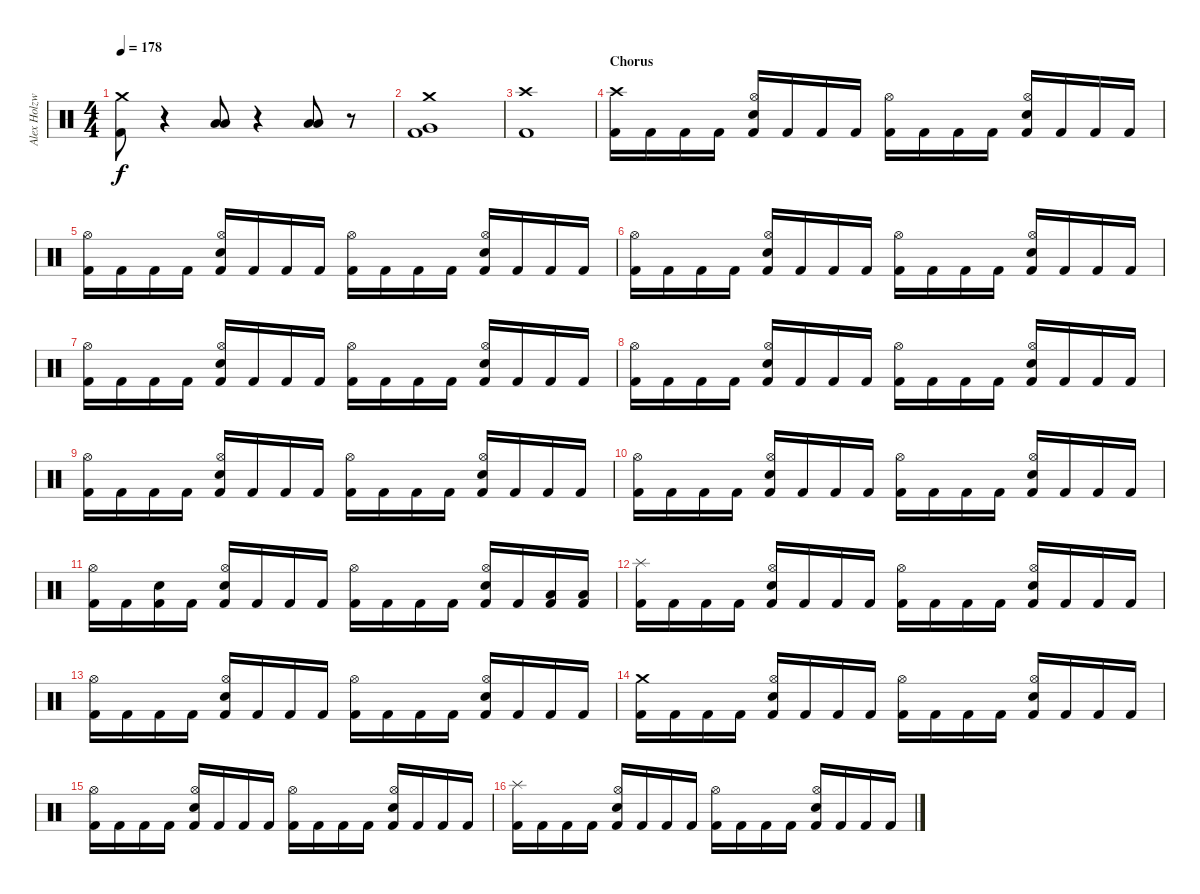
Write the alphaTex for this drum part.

\track ("Alex Holzwarth" "Alex Holzw") {instrument percussion}
\staff {score}
\articulation defaults
\ts (4 4)
\tempo 178
\clef neutral
\ks c
("Crash medium (hit)" "Kick (hit) 2").8{dy f} r.4 ("Low Tom (hit)" "Low Tom (hit)").8 r.4 ("Low Floor Tom (hit)" "Low Floor Tom (hit)").8 r.8 |
("Crash medium (hit)" "Very Low Tom (hit)" "Kick (hit) 2").1 |
("Crash high (hit)" "Kick (hit) 2").1 |
\section ("" "Chorus")
("Crash high (hit)" "Kick (hit) 2").16 "Kick (hit) 2".16 "Kick (hit) 2".16 "Kick (hit) 2".16 ("Hi-Hat (open)" "Snare (hit) 2" "Kick (hit) 2").16 "Kick (hit) 2".16 "Kick (hit) 2".16 "Kick (hit) 2".16 ("Hi-Hat (open)" "Kick (hit) 2").16 "Kick (hit) 2".16 "Kick (hit) 2".16 "Kick (hit) 2".16 ("Hi-Hat (open)" "Snare (hit) 2" "Kick (hit) 2").16 "Kick (hit) 2".16 "Kick (hit) 2".16 "Kick (hit) 2".16 |
("Hi-Hat (open)" "Kick (hit) 2").16 "Kick (hit) 2".16 "Kick (hit) 2".16 "Kick (hit) 2".16 ("Hi-Hat (open)" "Snare (hit) 2" "Kick (hit) 2").16 "Kick (hit) 2".16 "Kick (hit) 2".16 "Kick (hit) 2".16 ("Hi-Hat (open)" "Kick (hit) 2").16 "Kick (hit) 2".16 "Kick (hit) 2".16 "Kick (hit) 2".16 ("Hi-Hat (open)" "Snare (hit) 2" "Kick (hit) 2").16 "Kick (hit) 2".16 "Kick (hit) 2".16 "Kick (hit) 2".16 |
("Hi-Hat (open)" "Kick (hit) 2").16 "Kick (hit) 2".16 "Kick (hit) 2".16 "Kick (hit) 2".16 ("Hi-Hat (open)" "Snare (hit) 2" "Kick (hit) 2").16 "Kick (hit) 2".16 "Kick (hit) 2".16 "Kick (hit) 2".16 ("Hi-Hat (open)" "Kick (hit) 2").16 "Kick (hit) 2".16 "Kick (hit) 2".16 "Kick (hit) 2".16 ("Hi-Hat (open)" "Snare (hit) 2" "Kick (hit) 2").16 "Kick (hit) 2".16 "Kick (hit) 2".16 "Kick (hit) 2".16 |
("Hi-Hat (open)" "Kick (hit) 2").16 "Kick (hit) 2".16 "Kick (hit) 2".16 "Kick (hit) 2".16 ("Hi-Hat (open)" "Snare (hit) 2" "Kick (hit) 2").16 "Kick (hit) 2".16 "Kick (hit) 2".16 "Kick (hit) 2".16 ("Hi-Hat (open)" "Kick (hit) 2").16 "Kick (hit) 2".16 "Kick (hit) 2".16 "Kick (hit) 2".16 ("Hi-Hat (open)" "Snare (hit) 2" "Kick (hit) 2").16 "Kick (hit) 2".16 "Kick (hit) 2".16 "Kick (hit) 2".16 |
("Hi-Hat (open)" "Kick (hit) 2").16 "Kick (hit) 2".16 "Kick (hit) 2".16 "Kick (hit) 2".16 ("Hi-Hat (open)" "Snare (hit) 2" "Kick (hit) 2").16 "Kick (hit) 2".16 "Kick (hit) 2".16 "Kick (hit) 2".16 ("Hi-Hat (open)" "Kick (hit) 2").16 "Kick (hit) 2".16 "Kick (hit) 2".16 "Kick (hit) 2".16 ("Hi-Hat (open)" "Snare (hit) 2" "Kick (hit) 2").16 "Kick (hit) 2".16 "Kick (hit) 2".16 "Kick (hit) 2".16 |
("Hi-Hat (open)" "Kick (hit) 2").16 "Kick (hit) 2".16 "Kick (hit) 2".16 "Kick (hit) 2".16 ("Hi-Hat (open)" "Snare (hit) 2" "Kick (hit) 2").16 "Kick (hit) 2".16 "Kick (hit) 2".16 "Kick (hit) 2".16 ("Hi-Hat (open)" "Kick (hit) 2").16 "Kick (hit) 2".16 "Kick (hit) 2".16 "Kick (hit) 2".16 ("Hi-Hat (open)" "Snare (hit) 2" "Kick (hit) 2").16 "Kick (hit) 2".16 "Kick (hit) 2".16 "Kick (hit) 2".16 |
("Hi-Hat (open)" "Kick (hit) 2").16 "Kick (hit) 2".16 "Kick (hit) 2".16 "Kick (hit) 2".16 ("Hi-Hat (open)" "Snare (hit) 2" "Kick (hit) 2").16 "Kick (hit) 2".16 "Kick (hit) 2".16 "Kick (hit) 2".16 ("Hi-Hat (open)" "Kick (hit) 2").16 "Kick (hit) 2".16 "Kick (hit) 2".16 "Kick (hit) 2".16 ("Hi-Hat (open)" "Snare (hit) 2" "Kick (hit) 2").16 "Kick (hit) 2".16 "Kick (hit) 2".16 "Kick (hit) 2".16 |
("Hi-Hat (open)" "Kick (hit) 2").16 "Kick (hit) 2".16 ("Snare (hit) 2" "Kick (hit) 2").16 "Kick (hit) 2".16 ("Hi-Hat (open)" "Snare (hit) 2" "Kick (hit) 2").16 "Kick (hit) 2".16 "Kick (hit) 2".16 "Kick (hit) 2".16 ("Hi-Hat (open)" "Kick (hit) 2").16 "Kick (hit) 2".16 "Kick (hit) 2".16 "Kick (hit) 2".16 ("Hi-Hat (open)" "Snare (hit) 2" "Kick (hit) 2").16 "Kick (hit) 2".16 ("Low Tom (hit)" "Kick (hit) 2").16 ("Low Tom (hit)" "Kick (hit) 2").16 |
("Splash (hit)" "Kick (hit) 2").16 "Kick (hit) 2".16 "Kick (hit) 2".16 "Kick (hit) 2".16 ("Hi-Hat (open)" "Snare (hit) 2" "Kick (hit) 2").16 "Kick (hit) 2".16 "Kick (hit) 2".16 "Kick (hit) 2".16 ("Hi-Hat (open)" "Kick (hit) 2").16 "Kick (hit) 2".16 "Kick (hit) 2".16 "Kick (hit) 2".16 ("Hi-Hat (open)" "Snare (hit) 2" "Kick (hit) 2").16 "Kick (hit) 2".16 "Kick (hit) 2".16 "Kick (hit) 2".16 |
("Hi-Hat (open)" "Kick (hit) 2").16 "Kick (hit) 2".16 "Kick (hit) 2".16 "Kick (hit) 2".16 ("Hi-Hat (open)" "Snare (hit) 2" "Kick (hit) 2").16 "Kick (hit) 2".16 "Kick (hit) 2".16 "Kick (hit) 2".16 ("Hi-Hat (open)" "Kick (hit) 2").16 "Kick (hit) 2".16 "Kick (hit) 2".16 "Kick (hit) 2".16 ("Hi-Hat (open)" "Snare (hit) 2" "Kick (hit) 2").16 "Kick (hit) 2".16 "Kick (hit) 2".16 "Kick (hit) 2".16 |
("Crash medium (hit)" "Kick (hit) 2").16 "Kick (hit) 2".16 "Kick (hit) 2".16 "Kick (hit) 2".16 ("Hi-Hat (open)" "Snare (hit) 2" "Kick (hit) 2").16 "Kick (hit) 2".16 "Kick (hit) 2".16 "Kick (hit) 2".16 ("Hi-Hat (open)" "Kick (hit) 2").16 "Kick (hit) 2".16 "Kick (hit) 2".16 "Kick (hit) 2".16 ("Hi-Hat (open)" "Snare (hit) 2" "Kick (hit) 2").16 "Kick (hit) 2".16 "Kick (hit) 2".16 "Kick (hit) 2".16 |
("Hi-Hat (open)" "Kick (hit) 2").16 "Kick (hit) 2".16 "Kick (hit) 2".16 "Kick (hit) 2".16 ("Hi-Hat (open)" "Snare (hit) 2" "Kick (hit) 2").16 "Kick (hit) 2".16 "Kick (hit) 2".16 "Kick (hit) 2".16 ("Hi-Hat (open)" "Kick (hit) 2").16 "Kick (hit) 2".16 "Kick (hit) 2".16 "Kick (hit) 2".16 ("Hi-Hat (open)" "Snare (hit) 2" "Kick (hit) 2").16 "Kick (hit) 2".16 "Kick (hit) 2".16 "Kick (hit) 2".16 |
("Splash (hit)" "Kick (hit) 2").16 "Kick (hit) 2".16 "Kick (hit) 2".16 "Kick (hit) 2".16 ("Hi-Hat (open)" "Snare (hit) 2" "Kick (hit) 2").16 "Kick (hit) 2".16 "Kick (hit) 2".16 "Kick (hit) 2".16 ("Hi-Hat (open)" "Kick (hit) 2").16 "Kick (hit) 2".16 "Kick (hit) 2".16 "Kick (hit) 2".16 ("Hi-Hat (open)" "Snare (hit) 2" "Kick (hit) 2").16 "Kick (hit) 2".16 "Kick (hit) 2".16 "Kick (hit) 2".16
